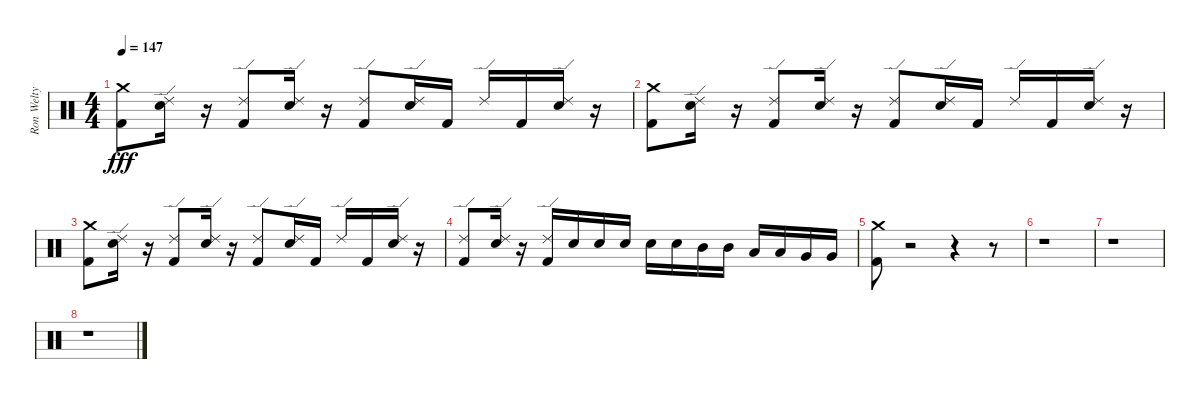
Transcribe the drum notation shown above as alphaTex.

\track ("Ron Welty" "Ron Welty") {instrument percussion}
\staff {score}
\articulation defaults
\ts (4 4)
\tempo 147
\clef neutral
\ks c
("Kick (hit) 2" "Crash medium (hit)").8{dy fff} ("Snare (hit) 2" "Ride (edge) 2").16 r.16 ("Kick (hit) 2" "Ride (edge) 2").8 ("Snare (hit) 2" "Ride (edge) 2").16 r.16 ("Kick (hit) 2" "Ride (edge) 2").8 ("Snare (hit) 2" "Ride (edge) 2").16 "Kick (hit) 2".16 "Ride (edge) 2".16 "Kick (hit) 2".16 ("Snare (hit) 2" "Ride (edge) 2").16 r.16 |
("Kick (hit) 2" "Crash medium (hit)").8 ("Snare (hit) 2" "Ride (edge) 2").16 r.16 ("Kick (hit) 2" "Ride (edge) 2").8 ("Snare (hit) 2" "Ride (edge) 2").16 r.16 ("Kick (hit) 2" "Ride (edge) 2").8 ("Snare (hit) 2" "Ride (edge) 2").16 "Kick (hit) 2".16 "Ride (edge) 2".16 "Kick (hit) 2".16 ("Snare (hit) 2" "Ride (edge) 2").16 r.16 |
("Kick (hit) 2" "Crash medium (hit)").8 ("Snare (hit) 2" "Ride (edge) 2").16 r.16 ("Kick (hit) 2" "Ride (edge) 2").8 ("Snare (hit) 2" "Ride (edge) 2").16 r.16 ("Kick (hit) 2" "Ride (edge) 2").8 ("Snare (hit) 2" "Ride (edge) 2").16 "Kick (hit) 2".16 "Ride (edge) 2".16 "Kick (hit) 2".16 ("Snare (hit) 2" "Ride (edge) 2").16 r.16 |
("Kick (hit) 2" "Ride (edge) 2").8 ("Snare (hit) 2" "Ride (edge) 2").16 r.16 ("Kick (hit) 2" "Ride (edge) 2").16 "Snare (hit) 2".16 "Snare (hit) 2".16 "Snare (hit) 2".16 "Snare (hit) 2".16 "Snare (hit) 2".16 "Mid Tom (hit)".16 "Mid Tom (hit)".16 "Low Tom (hit)".16 "Low Tom (hit)".16 "Very Low Tom (hit)".16 "Very Low Tom (hit)".16 |
("Kick (hit) 2" "Crash medium (hit)").8 r.2 r.4 r.8 |
r.1 |
r.1 |
r.1
